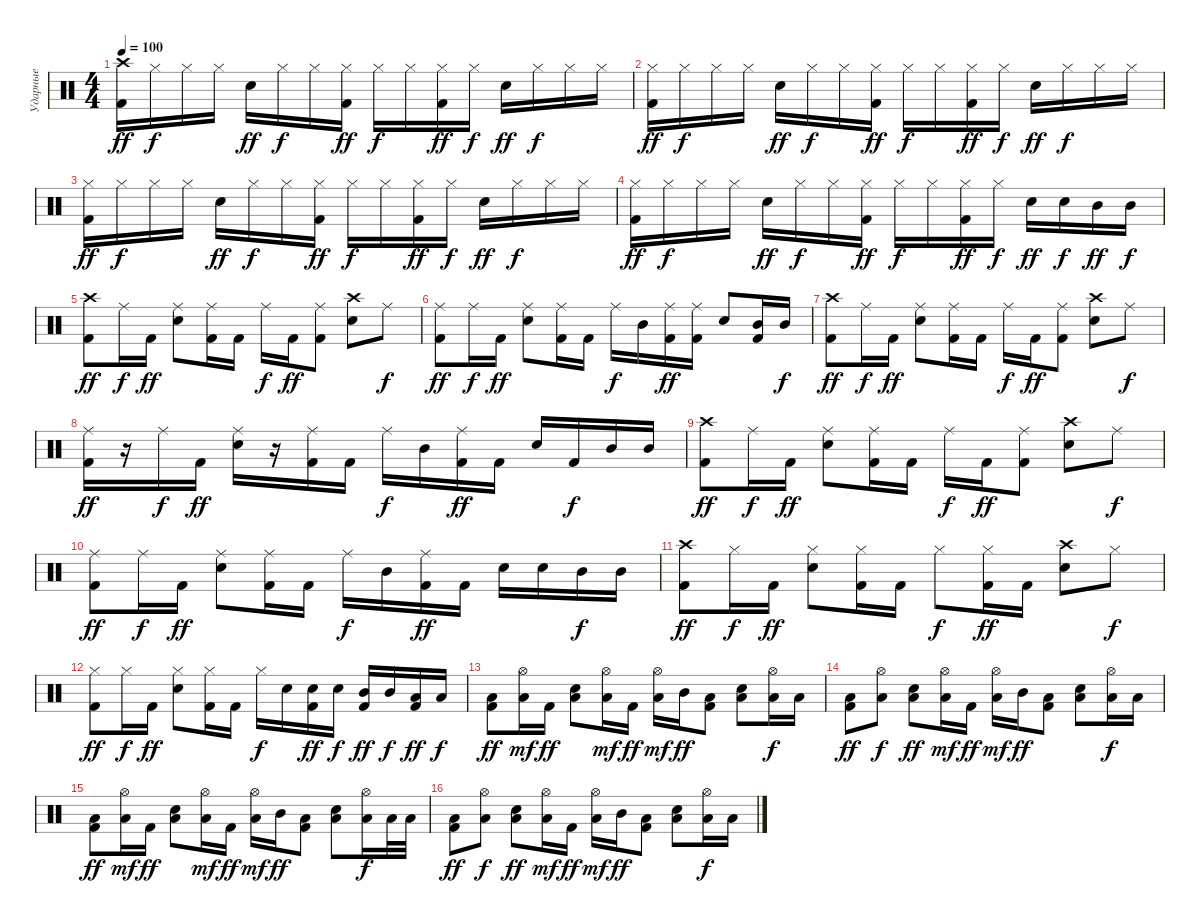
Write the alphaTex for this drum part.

\track ("Ударные" "Ударные") {instrument percussion}
\staff {score}
\articulation defaults
\ts (4 4)
\tempo 100
\clef neutral
\ks c
("Crash high (hit)" "Kick (hit) 2").16{dy ff} "Hi-Hat (closed)".16{dy f} "Hi-Hat (closed)".16 "Hi-Hat (closed)".16 "Snare (hit) 2".16{dy ff} "Hi-Hat (closed)".16{dy f} "Hi-Hat (closed)".16 ("Hi-Hat (closed)" "Kick (hit) 2").16{dy ff} "Hi-Hat (closed)".16{dy f} "Hi-Hat (closed)".16 ("Hi-Hat (closed)" "Kick (hit) 2").16{dy ff} "Hi-Hat (closed)".16{dy f} "Snare (hit) 2".16{dy ff} "Hi-Hat (closed)".16{dy f} "Hi-Hat (closed)".16 "Hi-Hat (closed)".16 |
("Hi-Hat (closed)" "Kick (hit) 2").16{dy ff} "Hi-Hat (closed)".16{dy f} "Hi-Hat (closed)".16 "Hi-Hat (closed)".16 "Snare (hit) 2".16{dy ff} "Hi-Hat (closed)".16{dy f} "Hi-Hat (closed)".16 ("Hi-Hat (closed)" "Kick (hit) 2").16{dy ff} "Hi-Hat (closed)".16{dy f} "Hi-Hat (closed)".16 ("Hi-Hat (closed)" "Kick (hit) 2").16{dy ff} "Hi-Hat (closed)".16{dy f} "Snare (hit) 2".16{dy ff} "Hi-Hat (closed)".16{dy f} "Hi-Hat (closed)".16 "Hi-Hat (closed)".16 |
("Hi-Hat (closed)" "Kick (hit) 2").16{dy ff} "Hi-Hat (closed)".16{dy f} "Hi-Hat (closed)".16 "Hi-Hat (closed)".16 "Snare (hit) 2".16{dy ff} "Hi-Hat (closed)".16{dy f} "Hi-Hat (closed)".16 ("Hi-Hat (closed)" "Kick (hit) 2").16{dy ff} "Hi-Hat (closed)".16{dy f} "Hi-Hat (closed)".16 ("Hi-Hat (closed)" "Kick (hit) 2").16{dy ff} "Hi-Hat (closed)".16{dy f} "Snare (hit) 2".16{dy ff} "Hi-Hat (closed)".16{dy f} "Hi-Hat (closed)".16 "Hi-Hat (closed)".16 |
("Hi-Hat (closed)" "Kick (hit) 2").16{dy ff} "Hi-Hat (closed)".16{dy f} "Hi-Hat (closed)".16 "Hi-Hat (closed)".16 "Snare (hit) 2".16{dy ff} "Hi-Hat (closed)".16{dy f} "Hi-Hat (closed)".16 ("Hi-Hat (closed)" "Kick (hit) 2").16{dy ff} "Hi-Hat (closed)".16{dy f} "Hi-Hat (closed)".16 ("Hi-Hat (closed)" "Kick (hit) 2").16{dy ff} "Hi-Hat (closed)".16{dy f} "Snare (hit) 2".16{dy ff} "Snare (hit) 2".16{dy f} "Mid Tom (hit)".16{dy ff} "Mid Tom (hit)".16{dy f} |
("Crash high (hit)" "Kick (hit) 2").8{dy ff} "Ride (middle)".16{dy f} "Kick (hit) 2".16{dy ff} ("Ride (middle)" "Snare (hit) 2").8 ("Ride (middle)" "Kick (hit) 2").16 "Kick (hit) 2".16 "Ride (middle)".16{dy f} "Kick (hit) 2".16{dy ff} ("Ride (middle)" "Kick (hit) 2").8 ("Crash high (hit)" "Snare (hit) 2").8 "Ride (middle)".8{dy f} |
("Ride (middle)" "Kick (hit) 2").8{dy ff} "Ride (middle)".16{dy f} "Kick (hit) 2".16{dy ff} ("Ride (middle)" "Snare (hit) 2").8 ("Ride (middle)" "Kick (hit) 2").16 "Kick (hit) 2".16 "Ride (middle)".16{dy f} "Mid Tom (hit)".16 ("Ride (middle)" "Kick (hit) 2").16{dy ff} ("Ride (middle)" "Kick (hit) 2").16 "Snare (hit) 2".8 ("Mid Tom (hit)" "Kick (hit) 2").16 "Mid Tom (hit)".16{dy f} |
("Crash high (hit)" "Kick (hit) 2").8{dy ff} "Ride (middle)".16{dy f} "Kick (hit) 2".16{dy ff} ("Ride (middle)" "Snare (hit) 2").8 ("Ride (middle)" "Kick (hit) 2").16 "Kick (hit) 2".16 "Ride (middle)".16{dy f} "Kick (hit) 2".16{dy ff} ("Ride (middle)" "Kick (hit) 2").8 ("Crash high (hit)" "Snare (hit) 2").8 "Ride (middle)".8{dy f} |
("Ride (middle)" "Kick (hit) 2").16{dy ff} r.16 "Ride (middle)".16{dy f} "Kick (hit) 2".16{dy ff} ("Ride (middle)" "Snare (hit) 2").16 r.16 ("Ride (middle)" "Kick (hit) 2").16 "Kick (hit) 2".16 "Ride (middle)".16{dy f} "Mid Tom (hit)".16 ("Ride (middle)" "Kick (hit) 2").16{dy ff} "Kick (hit) 2".16 "Snare (hit) 2".16 "Kick (hit) 2".16{dy f} "Mid Tom (hit)".16 "Mid Tom (hit)".16 |
("Crash high (hit)" "Kick (hit) 2").8{dy ff} "Ride (middle)".16{dy f} "Kick (hit) 2".16{dy ff} ("Ride (middle)" "Snare (hit) 2").8 ("Ride (middle)" "Kick (hit) 2").16 "Kick (hit) 2".16 "Ride (middle)".16{dy f} "Kick (hit) 2".16{dy ff} ("Ride (middle)" "Kick (hit) 2").8 ("Crash high (hit)" "Snare (hit) 2").8 "Ride (middle)".8{dy f} |
("Ride (middle)" "Kick (hit) 2").8{dy ff} "Ride (middle)".16{dy f} "Kick (hit) 2".16{dy ff} ("Ride (middle)" "Snare (hit) 2").8 ("Ride (middle)" "Kick (hit) 2").16 "Kick (hit) 2".16 "Ride (middle)".16{dy f} "Mid Tom (hit)".16 ("Ride (middle)" "Kick (hit) 2").16{dy ff} "Kick (hit) 2".16 "Snare (hit) 2".16 "Snare (hit) 2".16 "Mid Tom (hit)".16{dy f} "Mid Tom (hit)".16 |
("Crash high (hit)" "Kick (hit) 2").8{dy ff} "Hi-Hat (closed)".16{dy f} "Kick (hit) 2".16{dy ff} ("Hi-Hat (closed)" "Snare (hit) 2").8 ("Hi-Hat (closed)" "Kick (hit) 2").16 "Kick (hit) 2".16 "Hi-Hat (closed)".8{dy f} ("Hi-Hat (closed)" "Kick (hit) 2").16{dy ff} "Kick (hit) 2".16 ("Crash high (hit)" "Snare (hit) 2").8 "Hi-Hat (closed)".8{dy f} |
("Hi-Hat (closed)" "Kick (hit) 2").8{dy ff} "Hi-Hat (closed)".16{dy f} "Kick (hit) 2".16{dy ff} ("Hi-Hat (closed)" "Snare (hit) 2").8 ("Hi-Hat (closed)" "Kick (hit) 2").16 "Kick (hit) 2".16 "Hi-Hat (closed)".16{dy f} "Snare (hit) 2".16 ("Snare (hit) 2" "Kick (hit) 2").16{dy ff} "Snare (hit) 2".16{dy f} ("Mid Tom (hit)" "Kick (hit) 2").16{dy ff} "Mid Tom (hit)".16{dy f} ("Low Floor Tom (hit)" "Kick (hit) 2").16{dy ff} "Low Floor Tom (hit)".16{dy f} |
("Low Tom (hit)" "Kick (hit) 2").8{dy ff} ("Hi-Hat (open)" "Low Tom (hit)").16{dy mf} "Kick (hit) 2".16{dy ff} ("Low Tom (hit)" "Snare (hit) 2").8 ("Hi-Hat (open)" "Low Tom (hit)").16{dy mf} "Kick (hit) 2".16{dy ff} ("Hi-Hat (open)" "Low Tom (hit)").16{dy mf} "Mid Tom (hit)".16{dy ff} ("Low Tom (hit)" "Kick (hit) 2").8 ("Low Tom (hit)" "Snare (hit) 2").8 ("Hi-Hat (open)" "Low Tom (hit)").16{dy f} "Low Tom (hit)".16 |
("Low Tom (hit)" "Kick (hit) 2").8{dy ff} ("Hi-Hat (open)" "Low Tom (hit)").8{dy f} ("Low Tom (hit)" "Snare (hit) 2").8{dy ff} ("Hi-Hat (open)" "Low Tom (hit)").16{dy mf} "Kick (hit) 2".16{dy ff} ("Hi-Hat (open)" "Low Tom (hit)").16{dy mf} "Mid Tom (hit)".16{dy ff} ("Low Tom (hit)" "Kick (hit) 2").8 ("Low Tom (hit)" "Snare (hit) 2").8 ("Hi-Hat (open)" "Low Tom (hit)").16{dy f} "Low Tom (hit)".16 |
("Low Tom (hit)" "Kick (hit) 2").8{dy ff} ("Hi-Hat (open)" "Low Tom (hit)").16{dy mf} "Kick (hit) 2".16{dy ff} ("Low Tom (hit)" "Snare (hit) 2").8 ("Hi-Hat (open)" "Low Tom (hit)").16{dy mf} "Kick (hit) 2".16{dy ff} ("Hi-Hat (open)" "Low Tom (hit)").16{dy mf} "Mid Tom (hit)".16{dy ff} ("Low Tom (hit)" "Kick (hit) 2").8 ("Low Tom (hit)" "Snare (hit) 2").8 ("Hi-Hat (open)" "Low Tom (hit)").16{dy f} "Low Tom (hit)".32 "Low Tom (hit)".32 |
("Low Tom (hit)" "Kick (hit) 2").8{dy ff} ("Hi-Hat (open)" "Low Tom (hit)").8{dy f} ("Low Tom (hit)" "Snare (hit) 2").8{dy ff} ("Hi-Hat (open)" "Low Tom (hit)").16{dy mf} "Kick (hit) 2".16{dy ff} ("Hi-Hat (open)" "Low Tom (hit)").16{dy mf} "Mid Tom (hit)".16{dy ff} ("Low Tom (hit)" "Kick (hit) 2").8 ("Low Tom (hit)" "Snare (hit) 2").8 ("Hi-Hat (open)" "Low Tom (hit)").16{dy f} "Low Tom (hit)".16
